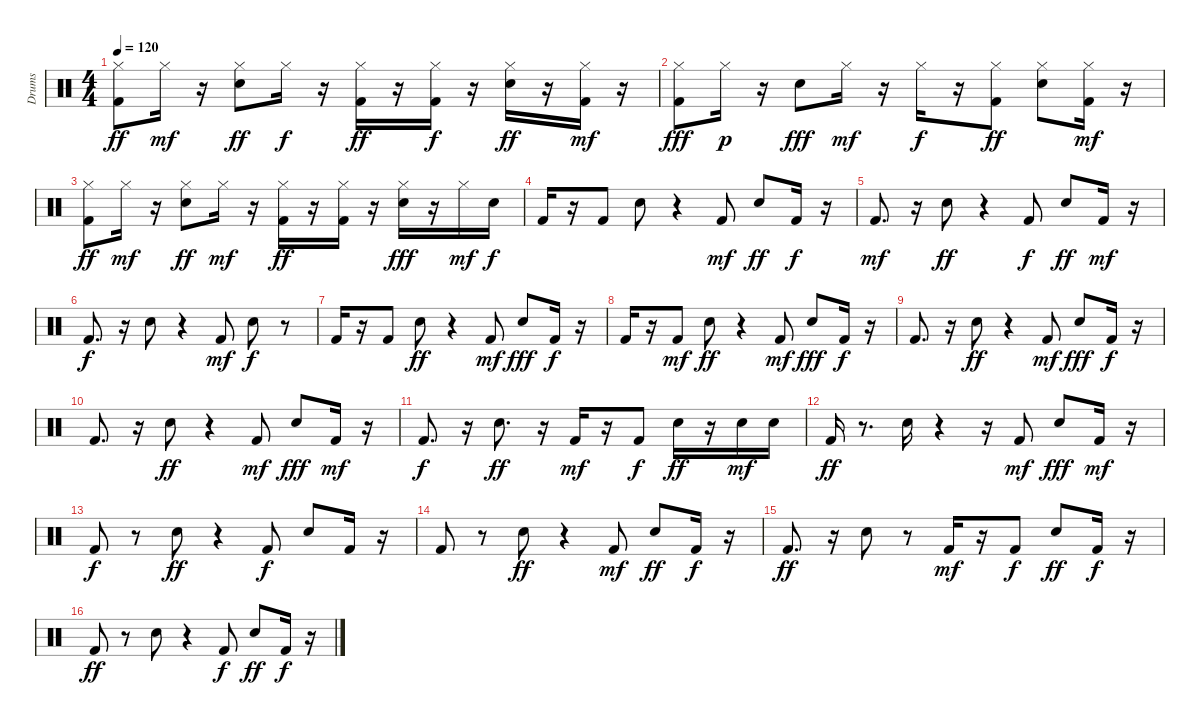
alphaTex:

\track ("Drums" "Drums") {instrument percussion}
\staff {score}
\articulation defaults
\ts (4 4)
\tempo 120
\clef neutral
\ks c
("Hi-Hat (closed)" "Kick (hit) 2").8{dy ff} "Hi-Hat (closed)".16{dy mf} r.16 ("Hi-Hat (closed)" "Electric Snare (hit)").8{dy ff} "Hi-Hat (closed)".16{dy f} r.16 ("Hi-Hat (closed)" "Kick (hit) 2").16{dy ff} r.16 ("Hi-Hat (closed)" "Kick (hit) 2").16{dy f} r.16 ("Hi-Hat (closed)" "Electric Snare (hit)").16{dy ff} r.16 ("Kick (hit) 2" "Hi-Hat (closed)").16{dy mf} r.16 |
("Hi-Hat (closed)" "Kick (hit) 2").8{dy fff} "Hi-Hat (closed)".16{dy p} r.16 "Electric Snare (hit)".8{dy fff} "Hi-Hat (closed)".16{dy mf} r.16 "Hi-Hat (closed)".16{dy f} r.16 ("Hi-Hat (closed)" "Kick (hit) 2").8{dy ff} ("Hi-Hat (closed)" "Electric Snare (hit)").8 ("Hi-Hat (closed)" "Kick (hit) 2").16{dy mf} r.16 |
("Kick (hit) 2" "Hi-Hat (closed)").8{dy ff} "Hi-Hat (closed)".16{dy mf} r.16 ("Electric Snare (hit)" "Hi-Hat (closed)").8{dy ff} "Hi-Hat (closed)".16{dy mf} r.16 ("Kick (hit) 2" "Hi-Hat (closed)").16{dy ff} r.16 ("Hi-Hat (closed)" "Kick (hit) 2").16 r.16 ("Hi-Hat (closed)" "Electric Snare (hit)").16{dy fff} r.16 "Hi-Hat (closed)".16{dy mf} "Electric Snare (hit)".16{dy f} |
"Kick (hit) 2".16 r.16 "Kick (hit) 2".8 "Electric Snare (hit)".8 r.4 "Kick (hit) 2".8{dy mf} "Electric Snare (hit)".8{dy ff} "Kick (hit) 2".16{dy f} r.16 |
"Kick (hit) 2".8{d dy mf} r.16 "Electric Snare (hit)".8{dy ff} r.4 "Kick (hit) 2".8{dy f} "Electric Snare (hit)".8{dy ff} "Kick (hit) 2".16{dy mf} r.16 |
"Kick (hit) 2".8{d dy f} r.16 "Electric Snare (hit)".8 r.4 "Kick (hit) 2".8{dy mf} "Electric Snare (hit)".8{dy f} r.8 |
"Kick (hit) 2".16 r.16 "Kick (hit) 2".8 "Electric Snare (hit)".8{dy ff} r.4 "Kick (hit) 2".8{dy mf} "Electric Snare (hit)".8{dy fff} "Kick (hit) 2".16{dy f} r.16 |
"Kick (hit) 2".16 r.16 "Kick (hit) 2".8{dy mf} "Electric Snare (hit)".8{dy ff} r.4 "Kick (hit) 2".8{dy mf} "Electric Snare (hit)".8{dy fff} "Kick (hit) 2".16{dy f} r.16 |
"Kick (hit) 2".8{d} r.16 "Electric Snare (hit)".8{dy ff} r.4 "Kick (hit) 2".8{dy mf} "Electric Snare (hit)".8{dy fff} "Kick (hit) 2".16{dy f} r.16 |
"Kick (hit) 2".8{d} r.16 "Electric Snare (hit)".8{dy ff} r.4 "Kick (hit) 2".8{dy mf} "Electric Snare (hit)".8{dy fff} "Kick (hit) 2".16{dy mf} r.16 |
"Kick (hit) 2".8{d dy f} r.16 "Electric Snare (hit)".8{d dy ff} r.16 "Kick (hit) 2".16{dy mf} r.16 "Kick (hit) 2".8{dy f} "Electric Snare (hit)".16{dy ff} r.16 "Electric Snare (hit)".16{dy mf} "Electric Snare (hit)".16 |
"Kick (hit) 2".16{dy ff} r.8{d} "Electric Snare (hit)".16 r.4 r.16 "Kick (hit) 2".8{dy mf} "Electric Snare (hit)".8{dy fff} "Kick (hit) 2".16{dy mf} r.16 |
"Kick (hit) 2".8{dy f} r.8 "Electric Snare (hit)".8{dy ff} r.4 "Kick (hit) 2".8{dy f} "Electric Snare (hit)".8 "Kick (hit) 2".16 r.16 |
"Kick (hit) 2".8 r.8 "Electric Snare (hit)".8{dy ff} r.4 "Kick (hit) 2".8{dy mf} "Electric Snare (hit)".8{dy ff} "Kick (hit) 2".16{dy f} r.16 |
"Kick (hit) 2".8{d dy ff} r.16 "Electric Snare (hit)".8 r.8 "Kick (hit) 2".16{dy mf} r.16 "Kick (hit) 2".8{dy f} "Electric Snare (hit)".8{dy ff} "Kick (hit) 2".16{dy f} r.16 |
"Kick (hit) 2".8{dy ff} r.8 "Electric Snare (hit)".8 r.4 "Kick (hit) 2".8{dy f} "Electric Snare (hit)".8{dy ff} "Kick (hit) 2".16{dy f} r.16
